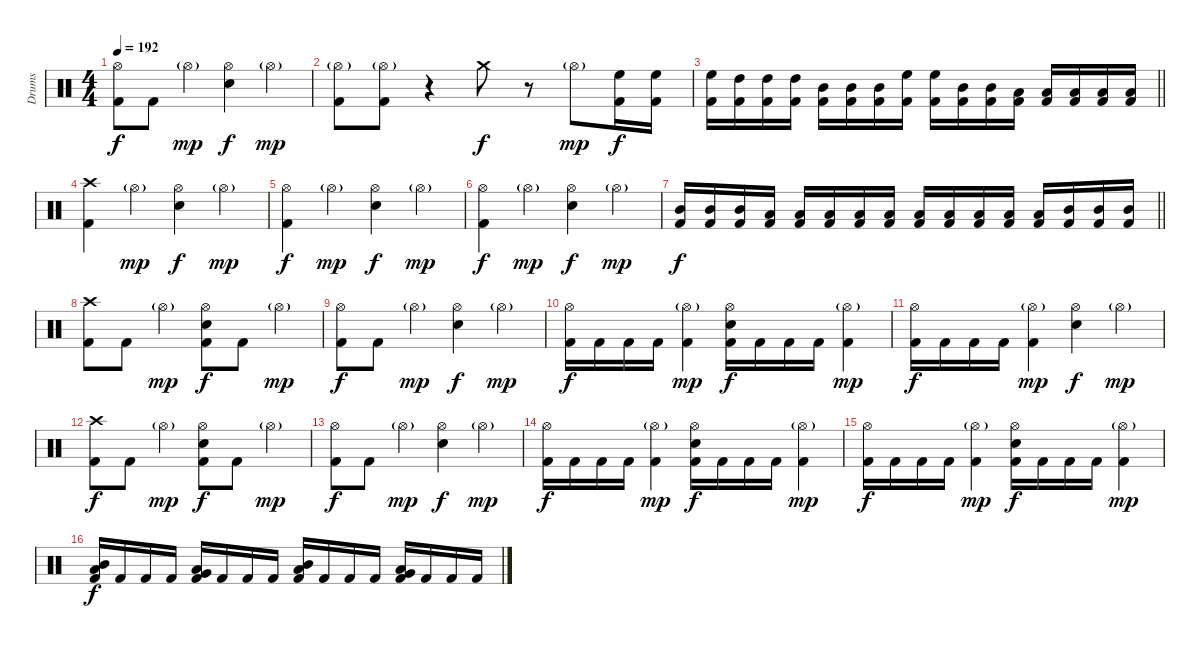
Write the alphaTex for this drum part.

\track ("Drums" "Drums") {instrument percussion}
\staff {score}
\articulation defaults
\ts (4 4)
\tempo 192
\clef neutral
\ks c
("Hi-Hat (open)" "Kick (hit) 2").8{dy f} "Kick (hit) 2".8 "Hi-Hat (open)"{g}.4{dy mp} ("Hi-Hat (open)" "Electric Snare (hit)").4{dy f} "Hi-Hat (open)"{g}.4{dy mp} |
("Kick (hit) 2" "Hi-Hat (open)"{g}).8 ("Kick (hit) 2" "Hi-Hat (open)"{g}).8 r.4 "Crash medium (hit)".8{dy f} r.8 "Hi-Hat (open)"{g}.8{dy mp} ("Kick (hit) 2" "High Floor Tom (hit)").16{dy f} ("Kick (hit) 2" "High Floor Tom (hit)").16 |
\barLineRight lightlight
("Kick (hit) 2" "High Floor Tom (hit)").16 ("Kick (hit) 2" "High Tom (hit)").16 ("Kick (hit) 2" "High Tom (hit)").16 ("Kick (hit) 2" "High Tom (hit)").16 ("Kick (hit) 2" "Mid Tom (hit)").16 ("Kick (hit) 2" "Mid Tom (hit)").16 ("Kick (hit) 2" "Mid Tom (hit)").16 ("Kick (hit) 2" "High Floor Tom (hit)").16 ("Kick (hit) 2" "High Floor Tom (hit)").16 ("Kick (hit) 2" "Mid Tom (hit)").16 ("Kick (hit) 2" "Mid Tom (hit)").16 ("Kick (hit) 2" "Low Tom (hit)").16 ("Kick (hit) 2" "Low Tom (hit)").16 ("Kick (hit) 2" "Low Tom (hit)").16 ("Kick (hit) 2" "Low Floor Tom (hit)").16 ("Kick (hit) 2" "Low Floor Tom (hit)").16 |
("Crash high (hit)" "Kick (hit) 2").4 "Hi-Hat (open)"{g}.4{dy mp} ("Hi-Hat (open)" "Electric Snare (hit)").4{dy f} "Hi-Hat (open)"{g}.4{dy mp} |
("Hi-Hat (open)" "Kick (hit) 2").4{dy f} "Hi-Hat (open)"{g}.4{dy mp} ("Hi-Hat (open)" "Electric Snare (hit)").4{dy f} "Hi-Hat (open)"{g}.4{dy mp} |
("Hi-Hat (open)" "Kick (hit) 2").4{dy f} "Hi-Hat (open)"{g}.4{dy mp} ("Hi-Hat (open)" "Electric Snare (hit)").4{dy f} "Hi-Hat (open)"{g}.4{dy mp} |
\barLineRight lightlight
("Kick (hit) 2" "Mid Tom (hit)").16{dy f} ("Kick (hit) 2" "Mid Tom (hit)").16 ("Kick (hit) 2" "Mid Tom (hit)").16 ("Kick (hit) 2" "Low Tom (hit)").16 ("Kick (hit) 2" "Low Tom (hit)").16 ("Kick (hit) 2" "Low Tom (hit)").16 ("Kick (hit) 2" "Low Tom (hit)").16 ("Kick (hit) 2" "Low Floor Tom (hit)").16 ("Kick (hit) 2" "Low Floor Tom (hit)").16 ("Kick (hit) 2" "Low Floor Tom (hit)").16 ("Kick (hit) 2" "Low Tom (hit)").16 ("Kick (hit) 2" "Low Tom (hit)").16 ("Kick (hit) 2" "Low Tom (hit)").16 ("Kick (hit) 2" "Mid Tom (hit)").16 ("Kick (hit) 2" "Mid Tom (hit)").16 ("Kick (hit) 2" "Mid Tom (hit)").16 |
("Crash high (hit)" "Kick (hit) 2").8 "Kick (hit) 2".8 "Hi-Hat (open)"{g}.4{dy mp} ("Hi-Hat (open)" "Electric Snare (hit)" "Kick (hit) 2").8{dy f} "Kick (hit) 2".8 "Hi-Hat (open)"{g}.4{dy mp} |
("Hi-Hat (open)" "Kick (hit) 2").8{dy f} "Kick (hit) 2".8 "Hi-Hat (open)"{g}.4{dy mp} ("Hi-Hat (open)" "Electric Snare (hit)").4{dy f} "Hi-Hat (open)"{g}.4{dy mp} |
("Hi-Hat (open)" "Kick (hit) 2").16{dy f} "Kick (hit) 2".16 "Kick (hit) 2".16 "Kick (hit) 2".16 ("Hi-Hat (open)"{g} "Kick (hit) 2").4{dy mp} ("Hi-Hat (open)" "Electric Snare (hit)" "Kick (hit) 2").16{dy f} "Kick (hit) 2".16 "Kick (hit) 2".16 "Kick (hit) 2".16 ("Hi-Hat (open)"{g} "Kick (hit) 2").4{dy mp} |
("Hi-Hat (open)" "Kick (hit) 2").16{dy f} "Kick (hit) 2".16 "Kick (hit) 2".16 "Kick (hit) 2".16 ("Hi-Hat (open)"{g} "Kick (hit) 2").4{dy mp} ("Hi-Hat (open)" "Electric Snare (hit)").4{dy f} "Hi-Hat (open)"{g}.4{dy mp} |
("Crash high (hit)" "Kick (hit) 2").8{dy f} "Kick (hit) 2".8 "Hi-Hat (open)"{g}.4{dy mp} ("Hi-Hat (open)" "Electric Snare (hit)" "Kick (hit) 2").8{dy f} "Kick (hit) 2".8 "Hi-Hat (open)"{g}.4{dy mp} |
("Hi-Hat (open)" "Kick (hit) 2").8{dy f} "Kick (hit) 2".8 "Hi-Hat (open)"{g}.4{dy mp} ("Hi-Hat (open)" "Electric Snare (hit)").4{dy f} "Hi-Hat (open)"{g}.4{dy mp} |
("Hi-Hat (open)" "Kick (hit) 2").16{dy f} "Kick (hit) 2".16 "Kick (hit) 2".16 "Kick (hit) 2".16 ("Hi-Hat (open)"{g} "Kick (hit) 2").4{dy mp} ("Hi-Hat (open)" "Electric Snare (hit)" "Kick (hit) 2").16{dy f} "Kick (hit) 2".16 "Kick (hit) 2".16 "Kick (hit) 2".16 ("Hi-Hat (open)"{g} "Kick (hit) 2").4{dy mp} |
("Hi-Hat (open)" "Kick (hit) 2").16{dy f} "Kick (hit) 2".16 "Kick (hit) 2".16 "Kick (hit) 2".16 ("Hi-Hat (open)"{g} "Kick (hit) 2").4{dy mp} ("Hi-Hat (open)" "Electric Snare (hit)" "Kick (hit) 2").16{dy f} "Kick (hit) 2".16 "Kick (hit) 2".16 "Kick (hit) 2".16 ("Hi-Hat (open)"{g} "Kick (hit) 2").4{dy mp} |
("Kick (hit) 2" "Mid Tom (hit)" "Low Tom (hit)").16{dy f} "Kick (hit) 2".16 "Kick (hit) 2".16 "Kick (hit) 2".16 ("Kick (hit) 2" "Low Tom (hit)" "Very Low Tom (hit)").16 "Kick (hit) 2".16 "Kick (hit) 2".16 "Kick (hit) 2".16 ("Kick (hit) 2" "Mid Tom (hit)" "Low Tom (hit)").16 "Kick (hit) 2".16 "Kick (hit) 2".16 "Kick (hit) 2".16 ("Kick (hit) 2" "Low Tom (hit)" "Very Low Tom (hit)").16 "Kick (hit) 2".16 "Kick (hit) 2".16 "Kick (hit) 2".16
